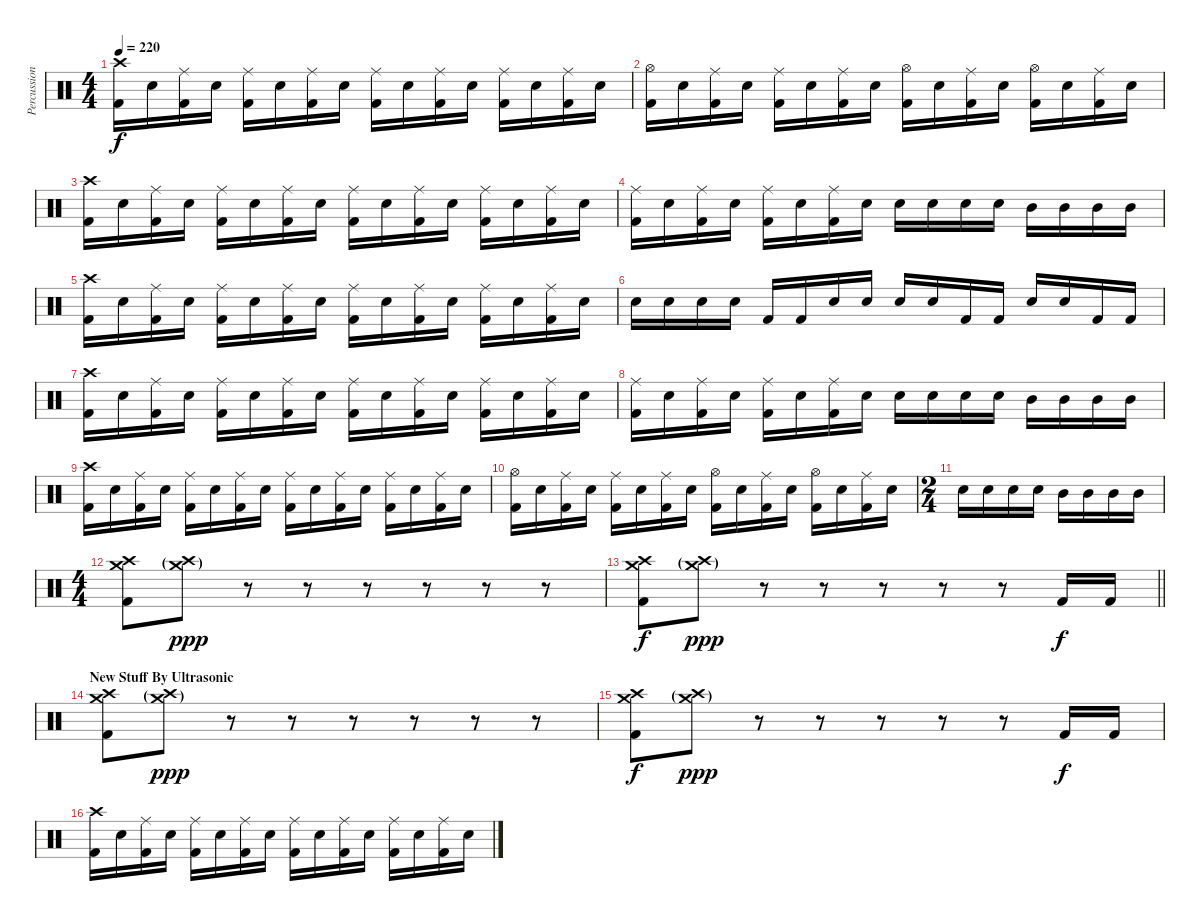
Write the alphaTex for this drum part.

\track ("Percussion" "Percussion") {instrument percussion}
\staff {score}
\articulation defaults
\ts (4 4)
\tempo 220
\clef neutral
\ks c
("Crash high (hit)" "Kick (hit) 2").16{dy f} "Electric Snare (hit)".16 ("Ride (middle)" "Kick (hit) 2").16 "Electric Snare (hit)".16 ("Ride (middle)" "Kick (hit) 2").16 "Electric Snare (hit)".16 ("Ride (middle)" "Kick (hit) 2").16 "Electric Snare (hit)".16 ("Ride (middle)" "Kick (hit) 2").16 "Electric Snare (hit)".16 ("Ride (middle)" "Kick (hit) 2").16 "Electric Snare (hit)".16 ("Ride (middle)" "Kick (hit) 2").16 "Electric Snare (hit)".16 ("Ride (middle)" "Kick (hit) 2").16 "Electric Snare (hit)".16 |
("Hi-Hat (open)" "Kick (hit) 2").16 "Electric Snare (hit)".16 ("Ride (middle)" "Kick (hit) 2").16 "Electric Snare (hit)".16 ("Ride (middle)" "Kick (hit) 2").16 "Electric Snare (hit)".16 ("Ride (middle)" "Kick (hit) 2").16 "Electric Snare (hit)".16 ("Hi-Hat (open)" "Kick (hit) 2").16 "Electric Snare (hit)".16 ("Ride (middle)" "Kick (hit) 2").16 "Electric Snare (hit)".16 ("Hi-Hat (open)" "Kick (hit) 2").16 "Electric Snare (hit)".16 ("Ride (middle)" "Kick (hit) 2").16 "Electric Snare (hit)".16 |
("Crash high (hit)" "Kick (hit) 2").16 "Electric Snare (hit)".16 ("Ride (middle)" "Kick (hit) 2").16 "Electric Snare (hit)".16 ("Ride (middle)" "Kick (hit) 2").16 "Electric Snare (hit)".16 ("Ride (middle)" "Kick (hit) 2").16 "Electric Snare (hit)".16 ("Ride (middle)" "Kick (hit) 2").16 "Electric Snare (hit)".16 ("Ride (middle)" "Kick (hit) 2").16 "Electric Snare (hit)".16 ("Ride (middle)" "Kick (hit) 2").16 "Electric Snare (hit)".16 ("Ride (middle)" "Kick (hit) 2").16 "Electric Snare (hit)".16 |
("Ride (middle)" "Kick (hit) 2").16 "Electric Snare (hit)".16 ("Ride (middle)" "Kick (hit) 2").16 "Electric Snare (hit)".16 ("Ride (middle)" "Kick (hit) 2").16 "Electric Snare (hit)".16 ("Ride (middle)" "Kick (hit) 2").16 "Electric Snare (hit)".16 "Electric Snare (hit)".16 "Electric Snare (hit)".16 "Electric Snare (hit)".16 "Electric Snare (hit)".16 "Mid Tom (hit)".16 "Mid Tom (hit)".16 "Mid Tom (hit)".16 "Mid Tom (hit)".16 |
("Crash high (hit)" "Kick (hit) 2").16 "Electric Snare (hit)".16 ("Ride (middle)" "Kick (hit) 2").16 "Electric Snare (hit)".16 ("Ride (middle)" "Kick (hit) 2").16 "Electric Snare (hit)".16 ("Ride (middle)" "Kick (hit) 2").16 "Electric Snare (hit)".16 ("Ride (middle)" "Kick (hit) 2").16 "Electric Snare (hit)".16 ("Ride (middle)" "Kick (hit) 2").16 "Electric Snare (hit)".16 ("Ride (middle)" "Kick (hit) 2").16 "Electric Snare (hit)".16 ("Ride (middle)" "Kick (hit) 2").16 "Electric Snare (hit)".16 |
"Electric Snare (hit)".16 "Electric Snare (hit)".16 "Electric Snare (hit)".16 "Electric Snare (hit)".16 "Kick (hit) 2".16 "Kick (hit) 2".16 "Electric Snare (hit)".16 "Electric Snare (hit)".16 "Electric Snare (hit)".16 "Electric Snare (hit)".16 "Kick (hit) 2".16 "Kick (hit) 2".16 "Electric Snare (hit)".16 "Electric Snare (hit)".16 "Kick (hit) 2".16 "Kick (hit) 2".16 |
("Crash high (hit)" "Kick (hit) 2").16 "Electric Snare (hit)".16 ("Ride (middle)" "Kick (hit) 2").16 "Electric Snare (hit)".16 ("Ride (middle)" "Kick (hit) 2").16 "Electric Snare (hit)".16 ("Ride (middle)" "Kick (hit) 2").16 "Electric Snare (hit)".16 ("Ride (middle)" "Kick (hit) 2").16 "Electric Snare (hit)".16 ("Ride (middle)" "Kick (hit) 2").16 "Electric Snare (hit)".16 ("Ride (middle)" "Kick (hit) 2").16 "Electric Snare (hit)".16 ("Ride (middle)" "Kick (hit) 2").16 "Electric Snare (hit)".16 |
("Ride (middle)" "Kick (hit) 2").16 "Electric Snare (hit)".16 ("Ride (middle)" "Kick (hit) 2").16 "Electric Snare (hit)".16 ("Ride (middle)" "Kick (hit) 2").16 "Electric Snare (hit)".16 ("Ride (middle)" "Kick (hit) 2").16 "Electric Snare (hit)".16 "Electric Snare (hit)".16 "Electric Snare (hit)".16 "Electric Snare (hit)".16 "Electric Snare (hit)".16 "Mid Tom (hit)".16 "Mid Tom (hit)".16 "Mid Tom (hit)".16 "Mid Tom (hit)".16 |
("Crash high (hit)" "Kick (hit) 2").16 "Electric Snare (hit)".16 ("Ride (middle)" "Kick (hit) 2").16 "Electric Snare (hit)".16 ("Ride (middle)" "Kick (hit) 2").16 "Electric Snare (hit)".16 ("Ride (middle)" "Kick (hit) 2").16 "Electric Snare (hit)".16 ("Ride (middle)" "Kick (hit) 2").16 "Electric Snare (hit)".16 ("Ride (middle)" "Kick (hit) 2").16 "Electric Snare (hit)".16 ("Ride (middle)" "Kick (hit) 2").16 "Electric Snare (hit)".16 ("Ride (middle)" "Kick (hit) 2").16 "Electric Snare (hit)".16 |
("Hi-Hat (open)" "Kick (hit) 2").16 "Electric Snare (hit)".16 ("Ride (middle)" "Kick (hit) 2").16 "Electric Snare (hit)".16 ("Ride (middle)" "Kick (hit) 2").16 "Electric Snare (hit)".16 ("Ride (middle)" "Kick (hit) 2").16 "Electric Snare (hit)".16 ("Hi-Hat (open)" "Kick (hit) 2").16 "Electric Snare (hit)".16 ("Ride (middle)" "Kick (hit) 2").16 "Electric Snare (hit)".16 ("Hi-Hat (open)" "Kick (hit) 2").16 "Electric Snare (hit)".16 ("Ride (middle)" "Kick (hit) 2").16 "Electric Snare (hit)".16 |
\ts (2 4)
"Electric Snare (hit)".16 "Electric Snare (hit)".16 "Electric Snare (hit)".16 "Electric Snare (hit)".16 "Mid Tom (hit)".16 "Mid Tom (hit)".16 "Mid Tom (hit)".16 "Mid Tom (hit)".16 |
\ts (4 4)
("Crash medium (hit)" "Crash high (hit)" "Kick (hit) 2").8 ("Crash medium (hit)"{g} "Crash high (hit)"{g}).8{dy ppp} r.8 r.8 r.8 r.8 r.8 r.8 |
\barLineRight lightlight
("Crash medium (hit)" "Crash high (hit)" "Kick (hit) 2").8{dy f} ("Crash medium (hit)"{g} "Crash high (hit)"{g}).8{dy ppp} r.8 r.8 r.8 r.8 r.8 "Kick (hit) 2".16{dy f} "Kick (hit) 2".16 |
\section ("" "New Stuff By Ultrasonic")
("Crash medium (hit)" "Crash high (hit)" "Kick (hit) 2").8 ("Crash medium (hit)"{g} "Crash high (hit)"{g}).8{dy ppp} r.8 r.8 r.8 r.8 r.8 r.8 |
("Crash medium (hit)" "Crash high (hit)" "Kick (hit) 2").8{dy f} ("Crash medium (hit)"{g} "Crash high (hit)"{g}).8{dy ppp} r.8 r.8 r.8 r.8 r.8 "Kick (hit) 2".16{dy f} "Kick (hit) 2".16 |
("Crash high (hit)" "Kick (hit) 2").16 "Electric Snare (hit)".16 ("Ride (middle)" "Kick (hit) 2").16 "Electric Snare (hit)".16 ("Ride (middle)" "Kick (hit) 2").16 "Electric Snare (hit)".16 ("Ride (middle)" "Kick (hit) 2").16 "Electric Snare (hit)".16 ("Ride (middle)" "Kick (hit) 2").16 "Electric Snare (hit)".16 ("Ride (middle)" "Kick (hit) 2").16 "Electric Snare (hit)".16 ("Ride (middle)" "Kick (hit) 2").16 "Electric Snare (hit)".16 ("Ride (middle)" "Kick (hit) 2").16 "Electric Snare (hit)".16
